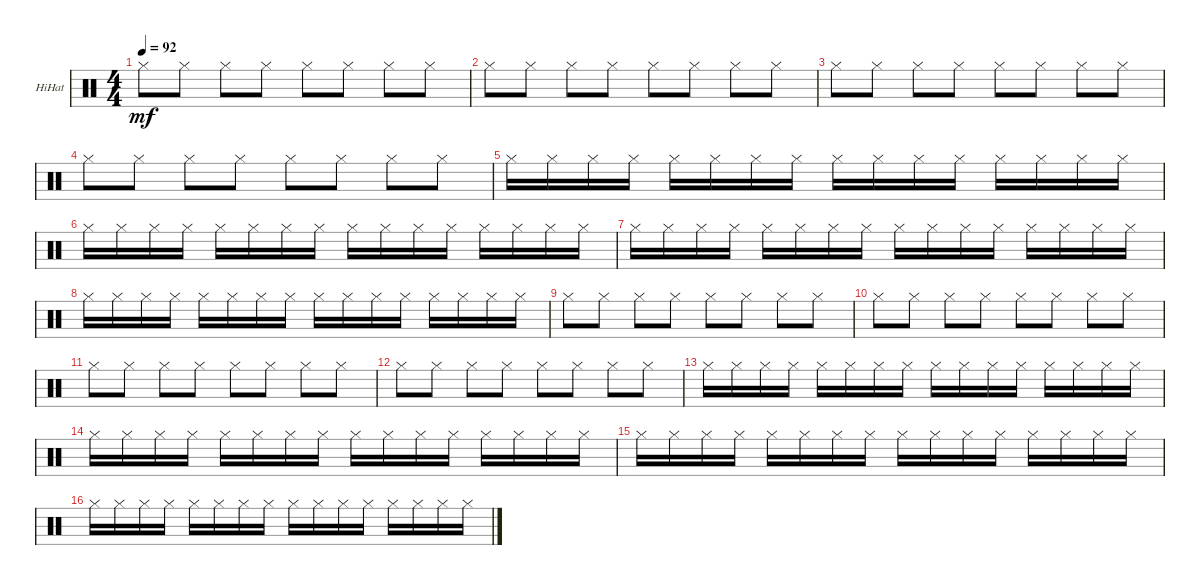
\bracketExtendMode groupsimilarinstruments
\firstSystemTrackNameOrientation horizontal
\otherSystemsTrackNameOrientation horizontal
\track (" HiHat" " HiHat") {instrument percussion}
\staff {score}
\articulation defaults
\ts (4 4)
\tempo 92
\clef neutral
\ks c "Hi-Hat (closed)".8{dy mf} "Hi-Hat (closed)".8 "Hi-Hat (closed)".8 "Hi-Hat (closed)".8 "Hi-Hat (closed)".8 "Hi-Hat (closed)".8 "Hi-Hat (closed)".8 "Hi-Hat (closed)".8
|
"Hi-Hat (closed)".8 "Hi-Hat (closed)".8 "Hi-Hat (closed)".8 "Hi-Hat (closed)".8 "Hi-Hat (closed)".8 "Hi-Hat (closed)".8 "Hi-Hat (closed)".8 "Hi-Hat (closed)".8 |
"Hi-Hat (closed)".8 "Hi-Hat (closed)".8 "Hi-Hat (closed)".8 "Hi-Hat (closed)".8 "Hi-Hat (closed)".8 "Hi-Hat (closed)".8 "Hi-Hat (closed)".8 "Hi-Hat (closed)".8 |
"Hi-Hat (closed)".8 "Hi-Hat (closed)".8 "Hi-Hat (closed)".8 "Hi-Hat (closed)".8 "Hi-Hat (closed)".8 "Hi-Hat (closed)".8 "Hi-Hat (closed)".8 "Hi-Hat (closed)".8 |
"Hi-Hat (closed)".16 "Hi-Hat (closed)".16 "Hi-Hat (closed)".16 "Hi-Hat (closed)".16 "Hi-Hat (closed)".16 "Hi-Hat (closed)".16 "Hi-Hat (closed)".16 "Hi-Hat (closed)".16 "Hi-Hat (closed)".16 "Hi-Hat (closed)".16 "Hi-Hat (closed)".16 "Hi-Hat (closed)".16 "Hi-Hat (closed)".16 "Hi-Hat (closed)".16 "Hi-Hat (closed)".16 "Hi-Hat (closed)".16 |
"Hi-Hat (closed)".16 "Hi-Hat (closed)".16 "Hi-Hat (closed)".16 "Hi-Hat (closed)".16 "Hi-Hat (closed)".16 "Hi-Hat (closed)".16 "Hi-Hat (closed)".16 "Hi-Hat (closed)".16 "Hi-Hat (closed)".16 "Hi-Hat (closed)".16 "Hi-Hat (closed)".16 "Hi-Hat (closed)".16 "Hi-Hat (closed)".16 "Hi-Hat (closed)".16 "Hi-Hat (closed)".16 "Hi-Hat (closed)".16 |
"Hi-Hat (closed)".16 "Hi-Hat (closed)".16 "Hi-Hat (closed)".16 "Hi-Hat (closed)".16 "Hi-Hat (closed)".16 "Hi-Hat (closed)".16 "Hi-Hat (closed)".16 "Hi-Hat (closed)".16 "Hi-Hat (closed)".16 "Hi-Hat (closed)".16 "Hi-Hat (closed)".16 "Hi-Hat (closed)".16 "Hi-Hat (closed)".16 "Hi-Hat (closed)".16 "Hi-Hat (closed)".16 "Hi-Hat (closed)".16 |
"Hi-Hat (closed)".16 "Hi-Hat (closed)".16 "Hi-Hat (closed)".16 "Hi-Hat (closed)".16 "Hi-Hat (closed)".16 "Hi-Hat (closed)".16 "Hi-Hat (closed)".16 "Hi-Hat (closed)".16 "Hi-Hat (closed)".16 "Hi-Hat (closed)".16 "Hi-Hat (closed)".16 "Hi-Hat (closed)".16 "Hi-Hat (closed)".16 "Hi-Hat (closed)".16 "Hi-Hat (closed)".16 "Hi-Hat (closed)".16 |
"Hi-Hat (closed)".8 "Hi-Hat (closed)".8 "Hi-Hat (closed)".8 "Hi-Hat (closed)".8 "Hi-Hat (closed)".8 "Hi-Hat (closed)".8 "Hi-Hat (closed)".8 "Hi-Hat (closed)".8 |
"Hi-Hat (closed)".8 "Hi-Hat (closed)".8 "Hi-Hat (closed)".8 "Hi-Hat (closed)".8 "Hi-Hat (closed)".8 "Hi-Hat (closed)".8 "Hi-Hat (closed)".8 "Hi-Hat (closed)".8 |
"Hi-Hat (closed)".8 "Hi-Hat (closed)".8 "Hi-Hat (closed)".8 "Hi-Hat (closed)".8 "Hi-Hat (closed)".8 "Hi-Hat (closed)".8 "Hi-Hat (closed)".8 "Hi-Hat (closed)".8 |
"Hi-Hat (closed)".8 "Hi-Hat (closed)".8 "Hi-Hat (closed)".8 "Hi-Hat (closed)".8 "Hi-Hat (closed)".8 "Hi-Hat (closed)".8 "Hi-Hat (closed)".8 "Hi-Hat (closed)".8 |
"Hi-Hat (closed)".16 "Hi-Hat (closed)".16 "Hi-Hat (closed)".16 "Hi-Hat (closed)".16 "Hi-Hat (closed)".16 "Hi-Hat (closed)".16 "Hi-Hat (closed)".16 "Hi-Hat (closed)".16 "Hi-Hat (closed)".16 "Hi-Hat (closed)".16 "Hi-Hat (closed)".16 "Hi-Hat (closed)".16 "Hi-Hat (closed)".16 "Hi-Hat (closed)".16 "Hi-Hat (closed)".16 "Hi-Hat (closed)".16 |
"Hi-Hat (closed)".16 "Hi-Hat (closed)".16 "Hi-Hat (closed)".16 "Hi-Hat (closed)".16 "Hi-Hat (closed)".16 "Hi-Hat (closed)".16 "Hi-Hat (closed)".16 "Hi-Hat (closed)".16 "Hi-Hat (closed)".16 "Hi-Hat (closed)".16 "Hi-Hat (closed)".16 "Hi-Hat (closed)".16 "Hi-Hat (closed)".16 "Hi-Hat (closed)".16 "Hi-Hat (closed)".16 "Hi-Hat (closed)".16 |
"Hi-Hat (closed)".16 "Hi-Hat (closed)".16 "Hi-Hat (closed)".16 "Hi-Hat (closed)".16 "Hi-Hat (closed)".16 "Hi-Hat (closed)".16 "Hi-Hat (closed)".16 "Hi-Hat (closed)".16 "Hi-Hat (closed)".16 "Hi-Hat (closed)".16 "Hi-Hat (closed)".16 "Hi-Hat (closed)".16 "Hi-Hat (closed)".16 "Hi-Hat (closed)".16 "Hi-Hat (closed)".16 "Hi-Hat (closed)".16 |
"Hi-Hat (closed)".16 "Hi-Hat (closed)".16 "Hi-Hat (closed)".16 "Hi-Hat (closed)".16 "Hi-Hat (closed)".16 "Hi-Hat (closed)".16 "Hi-Hat (closed)".16 "Hi-Hat (closed)".16 "Hi-Hat (closed)".16 "Hi-Hat (closed)".16 "Hi-Hat (closed)".16 "Hi-Hat (closed)".16 "Hi-Hat (closed)".16 "Hi-Hat (closed)".16 "Hi-Hat (closed)".16 "Hi-Hat (closed)".16
